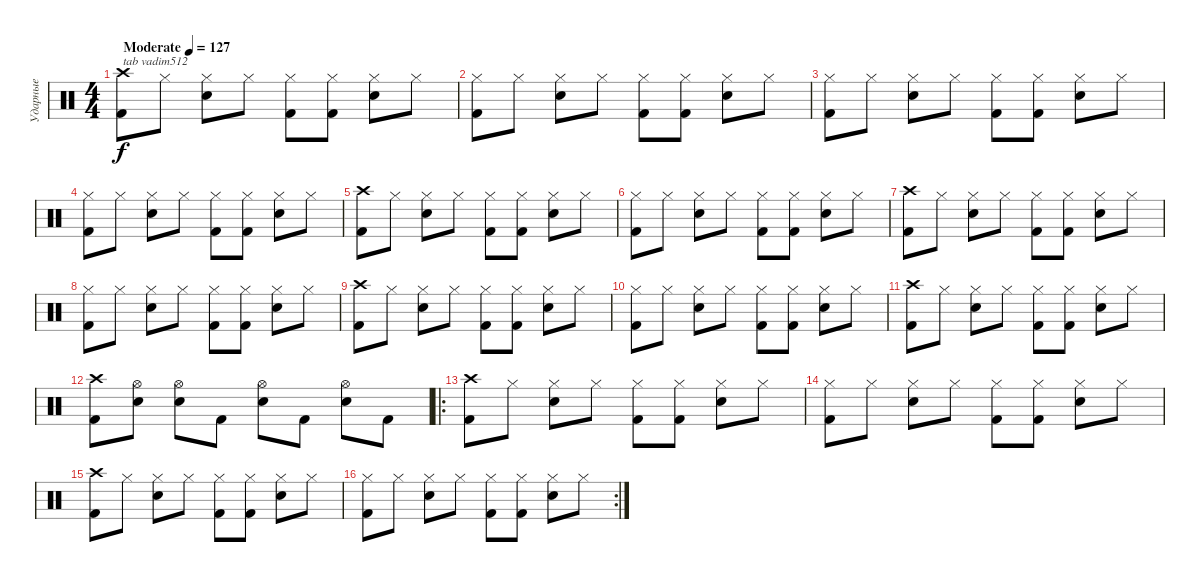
\track ("Ударные" "Ударные") {instrument percussion}
\staff {score}
\articulation defaults
\ts (4 4)
\tempo (127 "Moderate")
\clef neutral
\ks c
("Kick (hit) 2" "Crash high (hit)").8{txt "tab vadim512" dy f} "Hi-Hat (closed)".8 ("Electric Snare (hit)" "Hi-Hat (closed)").8 "Hi-Hat (closed)".8 ("Kick (hit) 2" "Hi-Hat (closed)").8 ("Kick (hit) 2" "Hi-Hat (closed)").8 ("Electric Snare (hit)" "Hi-Hat (closed)").8 "Hi-Hat (closed)".8 |
("Kick (hit) 2" "Hi-Hat (closed)").8 "Hi-Hat (closed)".8 ("Electric Snare (hit)" "Hi-Hat (closed)").8 "Hi-Hat (closed)".8 ("Kick (hit) 2" "Hi-Hat (closed)").8 ("Kick (hit) 2" "Hi-Hat (closed)").8 ("Electric Snare (hit)" "Hi-Hat (closed)").8 "Hi-Hat (closed)".8 |
("Kick (hit) 2" "Hi-Hat (closed)").8 "Hi-Hat (closed)".8 ("Electric Snare (hit)" "Hi-Hat (closed)").8 "Hi-Hat (closed)".8 ("Kick (hit) 2" "Hi-Hat (closed)").8 ("Kick (hit) 2" "Hi-Hat (closed)").8 ("Electric Snare (hit)" "Hi-Hat (closed)").8 "Hi-Hat (closed)".8 |
("Kick (hit) 2" "Hi-Hat (closed)").8 "Hi-Hat (closed)".8 ("Electric Snare (hit)" "Hi-Hat (closed)").8 "Hi-Hat (closed)".8 ("Kick (hit) 2" "Hi-Hat (closed)").8 ("Kick (hit) 2" "Hi-Hat (closed)").8 ("Electric Snare (hit)" "Hi-Hat (closed)").8 "Hi-Hat (closed)".8 |
("Kick (hit) 2" "Crash high (hit)").8 "Hi-Hat (closed)".8 ("Electric Snare (hit)" "Hi-Hat (closed)").8 "Hi-Hat (closed)".8 ("Kick (hit) 2" "Hi-Hat (closed)").8 ("Kick (hit) 2" "Hi-Hat (closed)").8 ("Electric Snare (hit)" "Hi-Hat (closed)").8 "Hi-Hat (closed)".8 |
("Kick (hit) 2" "Hi-Hat (closed)").8 "Hi-Hat (closed)".8 ("Electric Snare (hit)" "Hi-Hat (closed)").8 "Hi-Hat (closed)".8 ("Kick (hit) 2" "Hi-Hat (closed)").8 ("Kick (hit) 2" "Hi-Hat (closed)").8 ("Electric Snare (hit)" "Hi-Hat (closed)").8 "Hi-Hat (closed)".8 |
("Kick (hit) 2" "Crash high (hit)").8 "Hi-Hat (closed)".8 ("Electric Snare (hit)" "Hi-Hat (closed)").8 "Hi-Hat (closed)".8 ("Kick (hit) 2" "Hi-Hat (closed)").8 ("Kick (hit) 2" "Hi-Hat (closed)").8 ("Electric Snare (hit)" "Hi-Hat (closed)").8 "Hi-Hat (closed)".8 |
("Kick (hit) 2" "Hi-Hat (closed)").8 "Hi-Hat (closed)".8 ("Electric Snare (hit)" "Hi-Hat (closed)").8 "Hi-Hat (closed)".8 ("Kick (hit) 2" "Hi-Hat (closed)").8 ("Kick (hit) 2" "Hi-Hat (closed)").8 ("Electric Snare (hit)" "Hi-Hat (closed)").8 "Hi-Hat (closed)".8 |
("Kick (hit) 2" "Crash high (hit)").8 "Hi-Hat (closed)".8 ("Electric Snare (hit)" "Hi-Hat (closed)").8 "Hi-Hat (closed)".8 ("Kick (hit) 2" "Hi-Hat (closed)").8 ("Kick (hit) 2" "Hi-Hat (closed)").8 ("Electric Snare (hit)" "Hi-Hat (closed)").8 "Hi-Hat (closed)".8 |
("Kick (hit) 2" "Hi-Hat (closed)").8 "Hi-Hat (closed)".8 ("Electric Snare (hit)" "Hi-Hat (closed)").8 "Hi-Hat (closed)".8 ("Kick (hit) 2" "Hi-Hat (closed)").8 ("Kick (hit) 2" "Hi-Hat (closed)").8 ("Electric Snare (hit)" "Hi-Hat (closed)").8 "Hi-Hat (closed)".8 |
("Kick (hit) 2" "Crash high (hit)").8 "Hi-Hat (closed)".8 ("Electric Snare (hit)" "Hi-Hat (closed)").8 "Hi-Hat (closed)".8 ("Kick (hit) 2" "Hi-Hat (closed)").8 ("Kick (hit) 2" "Hi-Hat (closed)").8 ("Electric Snare (hit)" "Hi-Hat (closed)").8 "Hi-Hat (closed)".8 |
("Kick (hit) 2" "Crash high (hit)").8 ("Electric Snare (hit)" "Hi-Hat (open)").8 ("Electric Snare (hit)" "Hi-Hat (open)").8 "Kick (hit) 2".8 ("Electric Snare (hit)" "Hi-Hat (open)").8 "Kick (hit) 2".8 ("Electric Snare (hit)" "Hi-Hat (open)").8 "Kick (hit) 2".8 |
\ro
("Kick (hit) 2" "Crash high (hit)").8 "Hi-Hat (closed)".8 ("Electric Snare (hit)" "Hi-Hat (closed)").8 "Hi-Hat (closed)".8 ("Kick (hit) 2" "Hi-Hat (closed)").8 ("Kick (hit) 2" "Hi-Hat (closed)").8 ("Electric Snare (hit)" "Hi-Hat (closed)").8 "Hi-Hat (closed)".8 |
("Kick (hit) 2" "Hi-Hat (closed)").8 "Hi-Hat (closed)".8 ("Electric Snare (hit)" "Hi-Hat (closed)").8 "Hi-Hat (closed)".8 ("Kick (hit) 2" "Hi-Hat (closed)").8 ("Kick (hit) 2" "Hi-Hat (closed)").8 ("Electric Snare (hit)" "Hi-Hat (closed)").8 "Hi-Hat (closed)".8 |
("Kick (hit) 2" "Crash high (hit)").8 "Hi-Hat (closed)".8 ("Electric Snare (hit)" "Hi-Hat (closed)").8 "Hi-Hat (closed)".8 ("Kick (hit) 2" "Hi-Hat (closed)").8 ("Kick (hit) 2" "Hi-Hat (closed)").8 ("Electric Snare (hit)" "Hi-Hat (closed)").8 "Hi-Hat (closed)".8 |
\rc 2
("Kick (hit) 2" "Hi-Hat (closed)").8 "Hi-Hat (closed)".8 ("Electric Snare (hit)" "Hi-Hat (closed)").8 "Hi-Hat (closed)".8 ("Kick (hit) 2" "Hi-Hat (closed)").8 ("Kick (hit) 2" "Hi-Hat (closed)").8 ("Electric Snare (hit)" "Hi-Hat (closed)").8 "Hi-Hat (closed)".8
